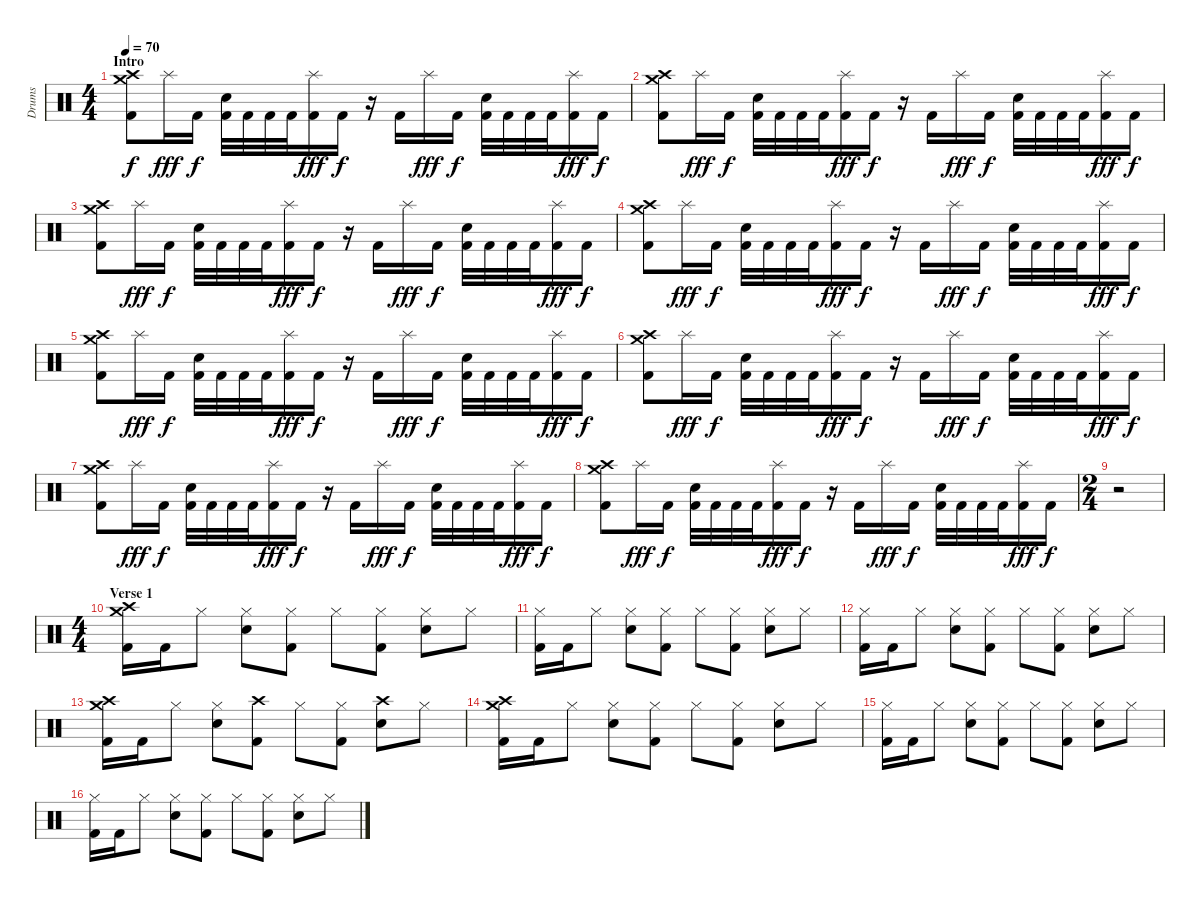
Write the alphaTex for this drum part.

\track ("Drums" "Drums") {instrument percussion}
\staff {score}
\articulation defaults
\ts (4 4)
\section ("" "Intro")
\tempo 70
\clef neutral
\ks c
("Crash high (hit)" "Crash medium (hit)" "Kick (hit) 2").8{dy f} "Splash (hit)".16{dy fff} "Kick (hit) 2".16{dy f} ("Electric Snare (hit)" "Kick (hit) 2").32 "Kick (hit) 2".32 "Kick (hit) 2".32 "Kick (hit) 2".32 ("Splash (hit)" "Kick (hit) 2").16{dy fff} "Kick (hit) 2".16{dy f} r.16 "Kick (hit) 2".16 "Splash (hit)".16{dy fff} "Kick (hit) 2".16{dy f} ("Electric Snare (hit)" "Kick (hit) 2").32 "Kick (hit) 2".32 "Kick (hit) 2".32 "Kick (hit) 2".32 ("Splash (hit)" "Kick (hit) 2").16{dy fff} "Kick (hit) 2".16{dy f} |
("Crash high (hit)" "Crash medium (hit)" "Kick (hit) 2").8 "Splash (hit)".16{dy fff} "Kick (hit) 2".16{dy f} ("Electric Snare (hit)" "Kick (hit) 2").32 "Kick (hit) 2".32 "Kick (hit) 2".32 "Kick (hit) 2".32 ("Splash (hit)" "Kick (hit) 2").16{dy fff} "Kick (hit) 2".16{dy f} r.16 "Kick (hit) 2".16 "Splash (hit)".16{dy fff} "Kick (hit) 2".16{dy f} ("Electric Snare (hit)" "Kick (hit) 2").32 "Kick (hit) 2".32 "Kick (hit) 2".32 "Kick (hit) 2".32 ("Splash (hit)" "Kick (hit) 2").16{dy fff} "Kick (hit) 2".16{dy f} |
("Crash high (hit)" "Crash medium (hit)" "Kick (hit) 2").8 "Splash (hit)".16{dy fff} "Kick (hit) 2".16{dy f} ("Electric Snare (hit)" "Kick (hit) 2").32 "Kick (hit) 2".32 "Kick (hit) 2".32 "Kick (hit) 2".32 ("Splash (hit)" "Kick (hit) 2").16{dy fff} "Kick (hit) 2".16{dy f} r.16 "Kick (hit) 2".16 "Splash (hit)".16{dy fff} "Kick (hit) 2".16{dy f} ("Electric Snare (hit)" "Kick (hit) 2").32 "Kick (hit) 2".32 "Kick (hit) 2".32 "Kick (hit) 2".32 ("Splash (hit)" "Kick (hit) 2").16{dy fff} "Kick (hit) 2".16{dy f} |
("Crash high (hit)" "Crash medium (hit)" "Kick (hit) 2").8 "Splash (hit)".16{dy fff} "Kick (hit) 2".16{dy f} ("Electric Snare (hit)" "Kick (hit) 2").32 "Kick (hit) 2".32 "Kick (hit) 2".32 "Kick (hit) 2".32 ("Splash (hit)" "Kick (hit) 2").16{dy fff} "Kick (hit) 2".16{dy f} r.16 "Kick (hit) 2".16 "Splash (hit)".16{dy fff} "Kick (hit) 2".16{dy f} ("Electric Snare (hit)" "Kick (hit) 2").32 "Kick (hit) 2".32 "Kick (hit) 2".32 "Kick (hit) 2".32 ("Splash (hit)" "Kick (hit) 2").16{dy fff} "Kick (hit) 2".16{dy f} |
("Crash high (hit)" "Crash medium (hit)" "Kick (hit) 2").8 "Splash (hit)".16{dy fff} "Kick (hit) 2".16{dy f} ("Electric Snare (hit)" "Kick (hit) 2").32 "Kick (hit) 2".32 "Kick (hit) 2".32 "Kick (hit) 2".32 ("Splash (hit)" "Kick (hit) 2").16{dy fff} "Kick (hit) 2".16{dy f} r.16 "Kick (hit) 2".16 "Splash (hit)".16{dy fff} "Kick (hit) 2".16{dy f} ("Electric Snare (hit)" "Kick (hit) 2").32 "Kick (hit) 2".32 "Kick (hit) 2".32 "Kick (hit) 2".32 ("Splash (hit)" "Kick (hit) 2").16{dy fff} "Kick (hit) 2".16{dy f} |
("Crash high (hit)" "Crash medium (hit)" "Kick (hit) 2").8 "Splash (hit)".16{dy fff} "Kick (hit) 2".16{dy f} ("Electric Snare (hit)" "Kick (hit) 2").32 "Kick (hit) 2".32 "Kick (hit) 2".32 "Kick (hit) 2".32 ("Splash (hit)" "Kick (hit) 2").16{dy fff} "Kick (hit) 2".16{dy f} r.16 "Kick (hit) 2".16 "Splash (hit)".16{dy fff} "Kick (hit) 2".16{dy f} ("Electric Snare (hit)" "Kick (hit) 2").32 "Kick (hit) 2".32 "Kick (hit) 2".32 "Kick (hit) 2".32 ("Splash (hit)" "Kick (hit) 2").16{dy fff} "Kick (hit) 2".16{dy f} |
("Crash high (hit)" "Crash medium (hit)" "Kick (hit) 2").8 "Splash (hit)".16{dy fff} "Kick (hit) 2".16{dy f} ("Electric Snare (hit)" "Kick (hit) 2").32 "Kick (hit) 2".32 "Kick (hit) 2".32 "Kick (hit) 2".32 ("Splash (hit)" "Kick (hit) 2").16{dy fff} "Kick (hit) 2".16{dy f} r.16 "Kick (hit) 2".16 "Splash (hit)".16{dy fff} "Kick (hit) 2".16{dy f} ("Electric Snare (hit)" "Kick (hit) 2").32 "Kick (hit) 2".32 "Kick (hit) 2".32 "Kick (hit) 2".32 ("Splash (hit)" "Kick (hit) 2").16{dy fff} "Kick (hit) 2".16{dy f} |
("Crash high (hit)" "Crash medium (hit)" "Kick (hit) 2").8 "Splash (hit)".16{dy fff} "Kick (hit) 2".16{dy f} ("Electric Snare (hit)" "Kick (hit) 2").32 "Kick (hit) 2".32 "Kick (hit) 2".32 "Kick (hit) 2".32 ("Splash (hit)" "Kick (hit) 2").16{dy fff} "Kick (hit) 2".16{dy f} r.16 "Kick (hit) 2".16 "Splash (hit)".16{dy fff} "Kick (hit) 2".16{dy f} ("Electric Snare (hit)" "Kick (hit) 2").32 "Kick (hit) 2".32 "Kick (hit) 2".32 "Kick (hit) 2".32 ("Splash (hit)" "Kick (hit) 2").16{dy fff} "Kick (hit) 2".16{dy f} |
\ts (2 4)
r.2 |
\ts (4 4)
\section ("" "Verse 1")
("Crash high (hit)" "Crash medium (hit)" "Kick (hit) 2").16 "Kick (hit) 2".16 "Hi-Hat (closed)".8 ("Hi-Hat (closed)" "Electric Snare (hit)").8 ("Hi-Hat (closed)" "Kick (hit) 2").8 "Hi-Hat (closed)".8 ("Hi-Hat (closed)" "Kick (hit) 2").8 ("Hi-Hat (closed)" "Electric Snare (hit)").8 "Hi-Hat (closed)".8 |
("Hi-Hat (closed)" "Kick (hit) 2").16 "Kick (hit) 2".16 "Hi-Hat (closed)".8 ("Hi-Hat (closed)" "Electric Snare (hit)").8 ("Hi-Hat (closed)" "Kick (hit) 2").8 "Hi-Hat (closed)".8 ("Hi-Hat (closed)" "Kick (hit) 2").8 ("Hi-Hat (closed)" "Electric Snare (hit)").8 "Hi-Hat (closed)".8 |
("Hi-Hat (closed)" "Kick (hit) 2").16 "Kick (hit) 2".16 "Hi-Hat (closed)".8 ("Hi-Hat (closed)" "Electric Snare (hit)").8 ("Hi-Hat (closed)" "Kick (hit) 2").8 "Hi-Hat (closed)".8 ("Hi-Hat (closed)" "Kick (hit) 2").8 ("Hi-Hat (closed)" "Electric Snare (hit)").8 "Hi-Hat (closed)".8 |
("Crash high (hit)" "Crash medium (hit)" "Kick (hit) 2").16 "Kick (hit) 2".16 "Hi-Hat (closed)".8 ("Hi-Hat (closed)" "Electric Snare (hit)").8 ("Crash high (hit)" "Kick (hit) 2").8 "Hi-Hat (closed)".8 ("Hi-Hat (closed)" "Kick (hit) 2").8 ("Crash high (hit)" "Electric Snare (hit)").8 "Hi-Hat (closed)".8 |
("Crash high (hit)" "Crash medium (hit)" "Kick (hit) 2").16 "Kick (hit) 2".16 "Hi-Hat (closed)".8 ("Hi-Hat (closed)" "Electric Snare (hit)").8 ("Hi-Hat (closed)" "Kick (hit) 2").8 "Hi-Hat (closed)".8 ("Hi-Hat (closed)" "Kick (hit) 2").8 ("Hi-Hat (closed)" "Electric Snare (hit)").8 "Hi-Hat (closed)".8 |
("Hi-Hat (closed)" "Kick (hit) 2").16 "Kick (hit) 2".16 "Hi-Hat (closed)".8 ("Hi-Hat (closed)" "Electric Snare (hit)").8 ("Hi-Hat (closed)" "Kick (hit) 2").8 "Hi-Hat (closed)".8 ("Hi-Hat (closed)" "Kick (hit) 2").8 ("Hi-Hat (closed)" "Electric Snare (hit)").8 "Hi-Hat (closed)".8 |
("Hi-Hat (closed)" "Kick (hit) 2").16 "Kick (hit) 2".16 "Hi-Hat (closed)".8 ("Hi-Hat (closed)" "Electric Snare (hit)").8 ("Hi-Hat (closed)" "Kick (hit) 2").8 "Hi-Hat (closed)".8 ("Hi-Hat (closed)" "Kick (hit) 2").8 ("Hi-Hat (closed)" "Electric Snare (hit)").8 "Hi-Hat (closed)".8
